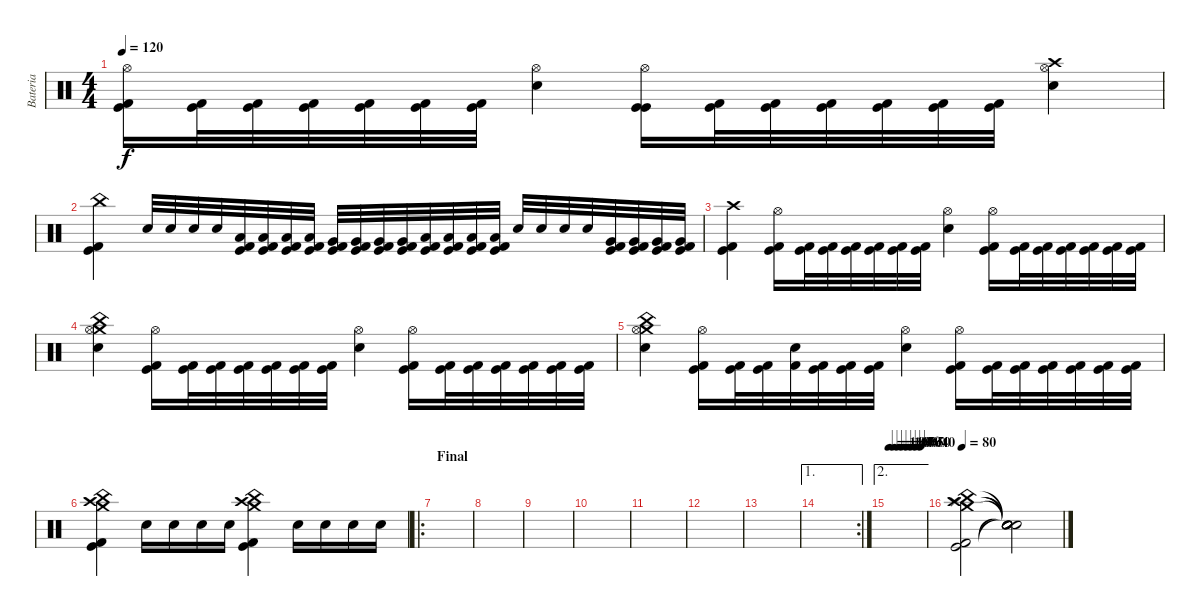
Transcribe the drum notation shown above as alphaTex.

\track ("Bateria" "Bateria") {instrument percussion}
\staff {score}
\articulation defaults
\ts (4 4)
\tempo 120
\clef neutral
\ks c
("Kick (hit) 2" "Kick (hit)" "Hi-Hat (open)").16{dy f} ("Kick (hit) 2" "Kick (hit)").32 ("Kick (hit) 2" "Kick (hit)").32 ("Kick (hit) 2" "Kick (hit)").32 ("Kick (hit) 2" "Kick (hit)").32 ("Kick (hit) 2" "Kick (hit)").32 ("Kick (hit) 2" "Kick (hit)").32 ("Electric Snare (hit)" "Hi-Hat (open)").4 ("Kick (hit)" "Kick (hit)" "Hi-Hat (open)").16 ("Kick (hit) 2" "Kick (hit)").32 ("Kick (hit) 2" "Kick (hit)").32 ("Kick (hit) 2" "Kick (hit)").32 ("Kick (hit) 2" "Kick (hit)").32 ("Kick (hit) 2" "Kick (hit)").32 ("Kick (hit) 2" "Kick (hit)").32 ("Crash high (hit)" "Electric Snare (hit)" "Hi-Hat (open)").4 |
("China (hit)" "Kick (hit) 2" "Kick (hit)").4 "Electric Snare (hit)".32 "Electric Snare (hit)".32 "Electric Snare (hit)".32 "Electric Snare (hit)".32 ("Kick (hit) 2" "Kick (hit)" "Low Floor Tom (hit)").32 ("Kick (hit) 2" "Kick (hit)" "Low Floor Tom (hit)").32 ("Kick (hit) 2" "Kick (hit)" "Low Floor Tom (hit)").32 ("Kick (hit) 2" "Kick (hit)" "Low Floor Tom (hit)").32 ("Very Low Tom (hit)" "Kick (hit)" "Kick (hit) 2").32 ("Very Low Tom (hit)" "Kick (hit)" "Kick (hit) 2").32 ("Very Low Tom (hit)" "Kick (hit)" "Kick (hit) 2").32 ("Very Low Tom (hit)" "Kick (hit)" "Kick (hit) 2").32 ("Low Floor Tom (hit)" "Kick (hit)" "Kick (hit) 2").32 ("Low Floor Tom (hit)" "Kick (hit)" "Kick (hit) 2").32 ("Low Floor Tom (hit)" "Kick (hit)" "Kick (hit) 2").32 ("Low Floor Tom (hit)" "Kick (hit)" "Kick (hit) 2").32 "Electric Snare (hit)".32 "Electric Snare (hit)".32 "Electric Snare (hit)".32 "Electric Snare (hit)".32 ("Very Low Tom (hit)" "Kick (hit)" "Kick (hit) 2").32 ("Very Low Tom (hit)" "Kick (hit)" "Kick (hit) 2").32 ("Very Low Tom (hit)" "Kick (hit)" "Kick (hit) 2").32 ("Very Low Tom (hit)" "Kick (hit)" "Kick (hit) 2").32 |
("Crash high (hit)" "Kick (hit)" "Kick (hit) 2").4 ("Hi-Hat (open)" "Kick (hit) 2" "Kick (hit)").16 ("Kick (hit) 2" "Kick (hit)").32 ("Kick (hit) 2" "Kick (hit)").32 ("Kick (hit) 2" "Kick (hit)").32 ("Kick (hit) 2" "Kick (hit)").32 ("Kick (hit) 2" "Kick (hit)").32 ("Kick (hit) 2" "Kick (hit)").32 ("Hi-Hat (open)" "Electric Snare (hit)").4 ("Hi-Hat (open)" "Kick (hit)" "Kick (hit) 2").16 ("Kick (hit)" "Kick (hit) 2").32 ("Kick (hit)" "Kick (hit) 2").32 ("Kick (hit)" "Kick (hit) 2").32 ("Kick (hit)" "Kick (hit) 2").32 ("Kick (hit)" "Kick (hit) 2").32 ("Kick (hit)" "Kick (hit) 2").32 |
("China (hit)" "Crash medium (hit)" "Electric Snare (hit)" "Hi-Hat (open)").4 ("Hi-Hat (open)" "Kick (hit) 2" "Kick (hit)").16 ("Kick (hit) 2" "Kick (hit)").32 ("Kick (hit) 2" "Kick (hit)").32 ("Kick (hit) 2" "Kick (hit)").32 ("Kick (hit) 2" "Kick (hit)").32 ("Kick (hit) 2" "Kick (hit)").32 ("Kick (hit) 2" "Kick (hit)").32 ("Electric Snare (hit)" "Hi-Hat (open)").4 ("Hi-Hat (open)" "Kick (hit) 2" "Kick (hit)").16 ("Kick (hit)" "Kick (hit) 2").32 ("Kick (hit)" "Kick (hit) 2").32 ("Kick (hit)" "Kick (hit) 2").32 ("Kick (hit)" "Kick (hit) 2").32 ("Kick (hit)" "Kick (hit) 2").32 ("Kick (hit)" "Kick (hit) 2").32 |
("China (hit)" "Crash medium (hit)" "Electric Snare (hit)" "Hi-Hat (open)").4 ("Hi-Hat (open)" "Kick (hit)" "Kick (hit) 2").16 ("Kick (hit)" "Kick (hit) 2").32 ("Kick (hit)" "Kick (hit) 2").32 ("Snare (hit)" "Kick (hit) 2").32 ("Kick (hit)" "Kick (hit) 2").32 ("Kick (hit)" "Kick (hit) 2").32 ("Kick (hit)" "Kick (hit) 2").32 ("Electric Snare (hit)" "Hi-Hat (open)").4 ("Hi-Hat (open)" "Kick (hit)" "Kick (hit) 2").16 ("Kick (hit)" "Kick (hit) 2").32 ("Kick (hit)" "Kick (hit) 2").32 ("Kick (hit)" "Kick (hit) 2").32 ("Kick (hit)" "Kick (hit) 2").32 ("Kick (hit)" "Kick (hit) 2").32 ("Kick (hit)" "Kick (hit) 2").32 |
("Crash high (hit)" "Crash medium (hit)" "China (hit)" "Kick (hit)" "Kick (hit) 2").4 "Electric Snare (hit)".16 "Electric Snare (hit)".16 "Electric Snare (hit)".16 "Electric Snare (hit)".16 ("Crash high (hit)" "Crash medium (hit)" "China (hit)" "Kick (hit) 2" "Kick (hit)").4 "Electric Snare (hit)".16 "Electric Snare (hit)".16 "Electric Snare (hit)".16 "Electric Snare (hit)".16 |
\ro
\section ("" "Final")
|
|
|
|
|
|
|
\ae 1
\rc 2
|
\ae 2
\tempo 110
\tempo (100 0.125)
\tempo (90 0.25)
\tempo (80 0.375)
\tempo (70 0.5)
\tempo (60 0.625)
\tempo (50 0.75)
\tempo (40 0.875)
|
\tempo 80
("Crash medium (hit)" "Splash (hit)" "China (hit)" "Crash high (hit)" "Kick (hit)" "Kick (hit) 2").2 ("Snare (hit)"{t} "Snare (hit)"{t} "Snare (hit)"{t} "Snare (hit)"{t} "Snare (hit)"{t} "Snare (hit)"{t}).2
